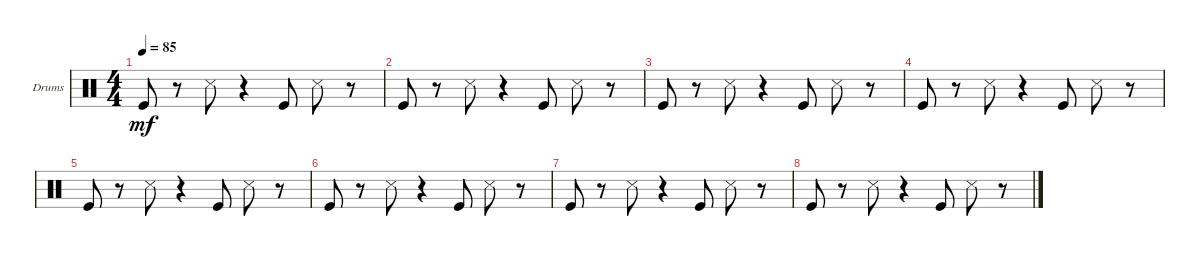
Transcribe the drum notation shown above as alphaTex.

\defaultSystemsLayout 4
\bracketExtendMode groupsimilarinstruments
\firstSystemTrackNameOrientation horizontal
\otherSystemsTrackNameOrientation horizontal
\track ("Drumkit" "Drums") {instrument percussion}
\staff {score}
\articulation defaults
\ts (4 4)
\tempo 85
\clef neutral
\ks c "Kick (hit)".8{dy mf}
r.8 "Snare (side stick) 3".8 r.4 "Kick (hit)".8 "Snare (side stick) 3".8 r.8 |
"Kick (hit)".8 r.8 "Snare (side stick) 3".8 r.4 "Kick (hit)".8 "Snare (side stick) 3".8 r.8 |
"Kick (hit)".8 r.8 "Snare (side stick) 3".8 r.4 "Kick (hit)".8 "Snare (side stick) 3".8 r.8 |
"Kick (hit)".8 r.8 "Snare (side stick) 3".8 r.4 "Kick (hit)".8 "Snare (side stick) 3".8 r.8 |
"Kick (hit)".8 r.8 "Snare (side stick) 3".8 r.4 "Kick (hit)".8 "Snare (side stick) 3".8 r.8 |
"Kick (hit)".8 r.8 "Snare (side stick) 3".8 r.4 "Kick (hit)".8 "Snare (side stick) 3".8 r.8 |
"Kick (hit)".8 r.8 "Snare (side stick) 3".8 r.4 "Kick (hit)".8 "Snare (side stick) 3".8 r.8 |
"Kick (hit)".8 r.8 "Snare (side stick) 3".8 r.4 "Kick (hit)".8 "Snare (side stick) 3".8 r.8
